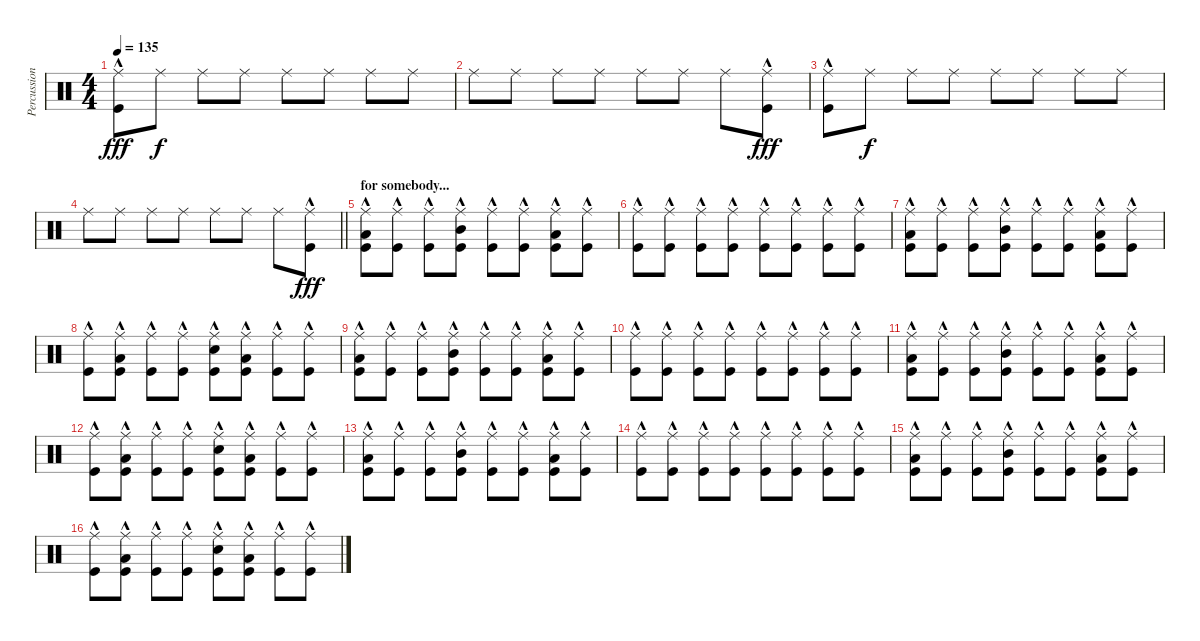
\track ("Percussion" "Percussion") {instrument percussion}
\staff {score}
\articulation defaults
\ts (4 4)
\tempo 135
\clef neutral
\ks c
("Ride (middle)" "Kick (hit)"{hac}).8{dy fff} "Ride (middle)".8{dy f} "Ride (middle)".8 "Ride (middle)".8 "Ride (middle)".8 "Ride (middle)".8 "Ride (middle)".8 "Ride (middle)".8 |
"Ride (middle)".8 "Ride (middle)".8 "Ride (middle)".8 "Ride (middle)".8 "Ride (middle)".8 "Ride (middle)".8 "Ride (middle)".8 ("Ride (middle)" "Kick (hit)"{hac}).8{dy fff} |
("Ride (middle)" "Kick (hit)"{hac}).8 "Ride (middle)".8{dy f} "Ride (middle)".8 "Ride (middle)".8 "Ride (middle)".8 "Ride (middle)".8 "Ride (middle)".8 "Ride (middle)".8 |
\barLineRight lightlight "Ride (middle)".8 "Ride (middle)".8 "Ride (middle)".8 "Ride (middle)".8 "Ride (middle)".8 "Ride (middle)".8 "Ride (middle)".8
("Ride (middle)" "Kick (hit)"{hac}).8{dy fff} |
\section ("" "for somebody...")
("Ride (middle)" "Low Floor Tom (hit)"{hac} "Kick (hit)"{hac}).8 ("Ride (middle)" "Kick (hit)"{hac}).8 ("Ride (middle)" "Kick (hit)"{hac}).8 ("Ride (middle)" "Mid Tom (hit)"{hac} "Kick (hit)"{hac}).8 ("Ride (middle)" "Kick (hit)"{hac}).8 ("Ride (middle)" "Kick (hit)"{hac}).8 ("Ride (middle)" "Low Tom (hit)"{hac} "Kick (hit)"{hac}).8 ("Ride (middle)" "Kick (hit)"{hac}).8 |
("Ride (middle)" "Kick (hit)"{hac}).8 ("Ride (middle)" "Kick (hit)"{hac}).8 ("Ride (middle)" "Kick (hit)"{hac}).8 ("Ride (middle)" "Kick (hit)"{hac}).8 ("Ride (middle)" "Kick (hit)"{hac}).8 ("Ride (middle)" "Kick (hit)"{hac}).8 ("Ride (middle)" "Kick (hit)"{hac}).8 ("Ride (middle)" "Kick (hit)"{hac}).8 |
("Ride (middle)" "Low Floor Tom (hit)"{hac} "Kick (hit)"{hac}).8 ("Ride (middle)" "Kick (hit)"{hac}).8 ("Ride (middle)" "Kick (hit)"{hac}).8 ("Ride (middle)" "Mid Tom (hit)"{hac} "Kick (hit)"{hac}).8 ("Ride (middle)" "Kick (hit)"{hac}).8 ("Ride (middle)" "Kick (hit)"{hac}).8 ("Ride (middle)" "Low Tom (hit)"{hac} "Kick (hit)"{hac}).8 ("Ride (middle)" "Kick (hit)"{hac}).8 |
("Ride (middle)" "Kick (hit)"{hac}).8 ("Ride (middle)" "Low Floor Tom (hit)"{hac} "Kick (hit)"{hac}).8 ("Ride (middle)" "Kick (hit)"{hac}).8 ("Ride (middle)" "Kick (hit)"{hac}).8 ("Ride (middle)" "Snare (hit) 2"{hac} "Kick (hit)"{hac}).8 ("Ride (middle)" "Low Tom (hit)" "Kick (hit)"{hac}).8 ("Ride (middle)" "Kick (hit)"{hac}).8 ("Ride (middle)" "Kick (hit)"{hac}).8 |
("Ride (middle)" "Low Floor Tom (hit)"{hac} "Kick (hit)"{hac}).8 ("Ride (middle)" "Kick (hit)"{hac}).8 ("Ride (middle)" "Kick (hit)"{hac}).8 ("Ride (middle)" "Mid Tom (hit)"{hac} "Kick (hit)"{hac}).8 ("Ride (middle)" "Kick (hit)"{hac}).8 ("Ride (middle)" "Kick (hit)"{hac}).8 ("Ride (middle)" "Low Tom (hit)"{hac} "Kick (hit)"{hac}).8 ("Ride (middle)" "Kick (hit)"{hac}).8 |
("Ride (middle)" "Kick (hit)"{hac}).8 ("Ride (middle)" "Kick (hit)"{hac}).8 ("Ride (middle)" "Kick (hit)"{hac}).8 ("Ride (middle)" "Kick (hit)"{hac}).8 ("Ride (middle)" "Kick (hit)"{hac}).8 ("Ride (middle)" "Kick (hit)"{hac}).8 ("Ride (middle)" "Kick (hit)"{hac}).8 ("Ride (middle)" "Kick (hit)"{hac}).8 |
("Ride (middle)" "Low Floor Tom (hit)"{hac} "Kick (hit)"{hac}).8 ("Ride (middle)" "Kick (hit)"{hac}).8 ("Ride (middle)" "Kick (hit)"{hac}).8 ("Ride (middle)" "Mid Tom (hit)"{hac} "Kick (hit)"{hac}).8 ("Ride (middle)" "Kick (hit)"{hac}).8 ("Ride (middle)" "Kick (hit)"{hac}).8 ("Ride (middle)" "Low Tom (hit)"{hac} "Kick (hit)"{hac}).8 ("Ride (middle)" "Kick (hit)"{hac}).8 |
("Ride (middle)" "Kick (hit)"{hac}).8 ("Ride (middle)" "Low Floor Tom (hit)"{hac} "Kick (hit)"{hac}).8 ("Ride (middle)" "Kick (hit)"{hac}).8 ("Ride (middle)" "Kick (hit)"{hac}).8 ("Ride (middle)" "Snare (hit) 2"{hac} "Kick (hit)"{hac}).8 ("Ride (middle)" "Low Tom (hit)" "Kick (hit)"{hac}).8 ("Ride (middle)" "Kick (hit)"{hac}).8 ("Ride (middle)" "Kick (hit)"{hac}).8 |
("Ride (middle)" "Low Floor Tom (hit)"{hac} "Kick (hit)"{hac}).8 ("Ride (middle)" "Kick (hit)"{hac}).8 ("Ride (middle)" "Kick (hit)"{hac}).8 ("Ride (middle)" "Mid Tom (hit)"{hac} "Kick (hit)"{hac}).8 ("Ride (middle)" "Kick (hit)"{hac}).8 ("Ride (middle)" "Kick (hit)"{hac}).8 ("Ride (middle)" "Low Tom (hit)"{hac} "Kick (hit)"{hac}).8 ("Ride (middle)" "Kick (hit)"{hac}).8 |
("Ride (middle)" "Kick (hit)"{hac}).8 ("Ride (middle)" "Kick (hit)"{hac}).8 ("Ride (middle)" "Kick (hit)"{hac}).8 ("Ride (middle)" "Kick (hit)"{hac}).8 ("Ride (middle)" "Kick (hit)"{hac}).8 ("Ride (middle)" "Kick (hit)"{hac}).8 ("Ride (middle)" "Kick (hit)"{hac}).8 ("Ride (middle)" "Kick (hit)"{hac}).8 |
("Ride (middle)" "Low Floor Tom (hit)"{hac} "Kick (hit)"{hac}).8 ("Ride (middle)" "Kick (hit)"{hac}).8 ("Ride (middle)" "Kick (hit)"{hac}).8 ("Ride (middle)" "Mid Tom (hit)"{hac} "Kick (hit)"{hac}).8 ("Ride (middle)" "Kick (hit)"{hac}).8 ("Ride (middle)" "Kick (hit)"{hac}).8 ("Ride (middle)" "Low Tom (hit)"{hac} "Kick (hit)"{hac}).8 ("Ride (middle)" "Kick (hit)"{hac}).8 |
("Ride (middle)" "Kick (hit)"{hac}).8 ("Ride (middle)" "Low Floor Tom (hit)"{hac} "Kick (hit)"{hac}).8 ("Ride (middle)" "Kick (hit)"{hac}).8 ("Ride (middle)" "Kick (hit)"{hac}).8 ("Ride (middle)" "Snare (hit) 2"{hac} "Kick (hit)"{hac}).8 ("Ride (middle)" "Low Tom (hit)" "Kick (hit)"{hac}).8 ("Ride (middle)" "Kick (hit)"{hac}).8 ("Ride (middle)" "Kick (hit)"{hac}).8
